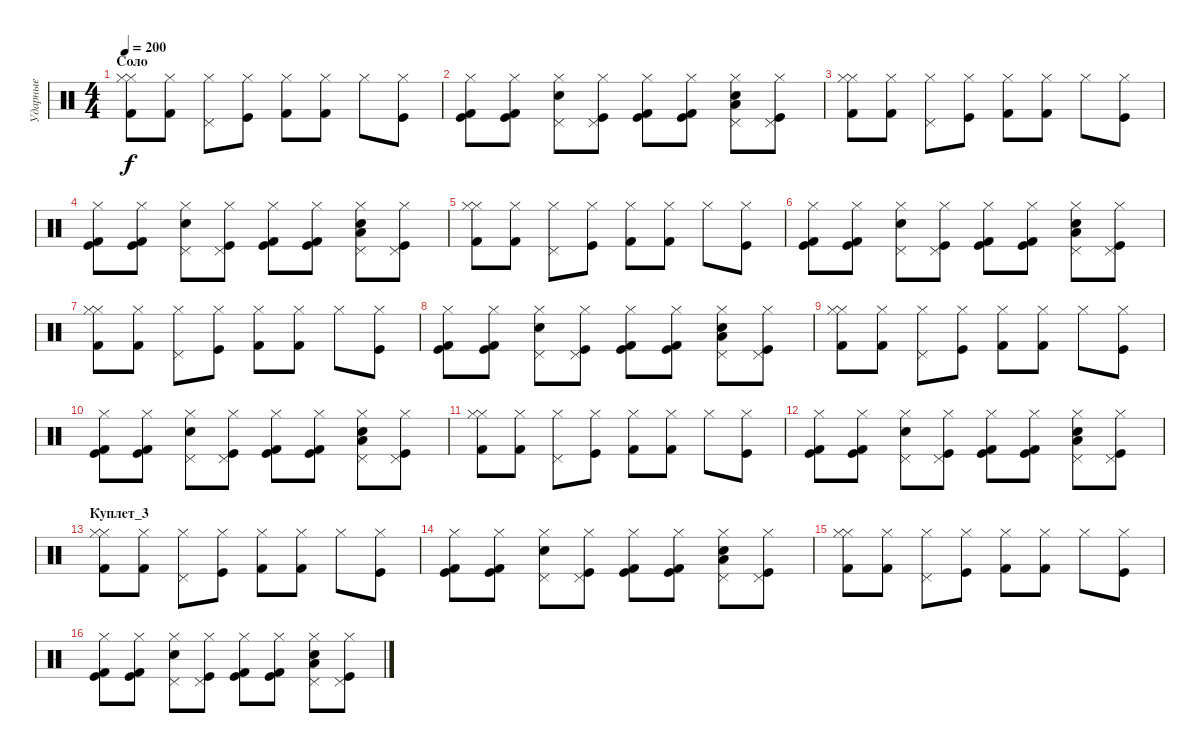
\track ("Ударные" "Ударные") {instrument percussion}
\staff {score}
\articulation defaults
\ts (4 4)
\section ("" "Соло")
\tempo 200
\clef neutral
\ks c
("Hi-Hat (closed)" "Kick (hit) 2" "Hi-Hat (closed)").8{dy f} ("Hi-Hat (closed)" "Kick (hit) 2").8 ("Hi-Hat (closed)" "Pedal Hi-Hat (hit)").8 ("Hi-Hat (closed)" "Kick (hit)").8 ("Hi-Hat (closed)" "Kick (hit) 2").8 ("Hi-Hat (closed)" "Kick (hit) 2").8 "Hi-Hat (closed)".8 ("Hi-Hat (closed)" "Kick (hit)").8 |
("Kick (hit)" "Kick (hit) 2" "Hi-Hat (closed)").8 ("Kick (hit)" "Kick (hit) 2" "Hi-Hat (closed)").8 ("Electric Snare (hit)" "Pedal Hi-Hat (hit)" "Hi-Hat (closed)").8 ("Pedal Hi-Hat (hit)" "Kick (hit)" "Hi-Hat (closed)").8 ("Kick (hit)" "Kick (hit) 2" "Hi-Hat (closed)").8 ("Kick (hit)" "Kick (hit) 2" "Hi-Hat (closed)").8 ("Low Tom (hit)" "Electric Snare (hit)" "Pedal Hi-Hat (hit)" "Hi-Hat (closed)").8 ("Pedal Hi-Hat (hit)" "Kick (hit)" "Hi-Hat (closed)").8 |
("Hi-Hat (closed)" "Kick (hit) 2" "Hi-Hat (closed)").8 ("Hi-Hat (closed)" "Kick (hit) 2").8 ("Hi-Hat (closed)" "Pedal Hi-Hat (hit)").8 ("Hi-Hat (closed)" "Kick (hit)").8 ("Hi-Hat (closed)" "Kick (hit) 2").8 ("Hi-Hat (closed)" "Kick (hit) 2").8 "Hi-Hat (closed)".8 ("Hi-Hat (closed)" "Kick (hit)").8 |
("Kick (hit)" "Kick (hit) 2" "Hi-Hat (closed)").8 ("Kick (hit)" "Kick (hit) 2" "Hi-Hat (closed)").8 ("Electric Snare (hit)" "Pedal Hi-Hat (hit)" "Hi-Hat (closed)").8 ("Pedal Hi-Hat (hit)" "Kick (hit)" "Hi-Hat (closed)").8 ("Kick (hit)" "Kick (hit) 2" "Hi-Hat (closed)").8 ("Kick (hit)" "Kick (hit) 2" "Hi-Hat (closed)").8 ("Low Tom (hit)" "Electric Snare (hit)" "Pedal Hi-Hat (hit)" "Hi-Hat (closed)").8 ("Pedal Hi-Hat (hit)" "Kick (hit)" "Hi-Hat (closed)").8 |
("Hi-Hat (closed)" "Kick (hit) 2" "Hi-Hat (closed)").8 ("Hi-Hat (closed)" "Kick (hit) 2").8 ("Hi-Hat (closed)" "Pedal Hi-Hat (hit)").8 ("Hi-Hat (closed)" "Kick (hit)").8 ("Hi-Hat (closed)" "Kick (hit) 2").8 ("Hi-Hat (closed)" "Kick (hit) 2").8 "Hi-Hat (closed)".8 ("Hi-Hat (closed)" "Kick (hit)").8 |
("Kick (hit)" "Kick (hit) 2" "Hi-Hat (closed)").8 ("Kick (hit)" "Kick (hit) 2" "Hi-Hat (closed)").8 ("Electric Snare (hit)" "Pedal Hi-Hat (hit)" "Hi-Hat (closed)").8 ("Pedal Hi-Hat (hit)" "Kick (hit)" "Hi-Hat (closed)").8 ("Kick (hit)" "Kick (hit) 2" "Hi-Hat (closed)").8 ("Kick (hit)" "Kick (hit) 2" "Hi-Hat (closed)").8 ("Low Tom (hit)" "Electric Snare (hit)" "Pedal Hi-Hat (hit)" "Hi-Hat (closed)").8 ("Pedal Hi-Hat (hit)" "Kick (hit)" "Hi-Hat (closed)").8 |
("Hi-Hat (closed)" "Kick (hit) 2" "Hi-Hat (closed)").8 ("Hi-Hat (closed)" "Kick (hit) 2").8 ("Hi-Hat (closed)" "Pedal Hi-Hat (hit)").8 ("Hi-Hat (closed)" "Kick (hit)").8 ("Hi-Hat (closed)" "Kick (hit) 2").8 ("Hi-Hat (closed)" "Kick (hit) 2").8 "Hi-Hat (closed)".8 ("Hi-Hat (closed)" "Kick (hit)").8 |
("Kick (hit)" "Kick (hit) 2" "Hi-Hat (closed)").8 ("Kick (hit)" "Kick (hit) 2" "Hi-Hat (closed)").8 ("Electric Snare (hit)" "Pedal Hi-Hat (hit)" "Hi-Hat (closed)").8 ("Pedal Hi-Hat (hit)" "Kick (hit)" "Hi-Hat (closed)").8 ("Kick (hit)" "Kick (hit) 2" "Hi-Hat (closed)").8 ("Kick (hit)" "Kick (hit) 2" "Hi-Hat (closed)").8 ("Low Tom (hit)" "Electric Snare (hit)" "Pedal Hi-Hat (hit)" "Hi-Hat (closed)").8 ("Pedal Hi-Hat (hit)" "Kick (hit)" "Hi-Hat (closed)").8 |
("Hi-Hat (closed)" "Kick (hit) 2" "Hi-Hat (closed)").8 ("Hi-Hat (closed)" "Kick (hit) 2").8 ("Hi-Hat (closed)" "Pedal Hi-Hat (hit)").8 ("Hi-Hat (closed)" "Kick (hit)").8 ("Hi-Hat (closed)" "Kick (hit) 2").8 ("Hi-Hat (closed)" "Kick (hit) 2").8 "Hi-Hat (closed)".8 ("Hi-Hat (closed)" "Kick (hit)").8 |
("Kick (hit)" "Kick (hit) 2" "Hi-Hat (closed)").8 ("Kick (hit)" "Kick (hit) 2" "Hi-Hat (closed)").8 ("Electric Snare (hit)" "Pedal Hi-Hat (hit)" "Hi-Hat (closed)").8 ("Pedal Hi-Hat (hit)" "Kick (hit)" "Hi-Hat (closed)").8 ("Kick (hit)" "Kick (hit) 2" "Hi-Hat (closed)").8 ("Kick (hit)" "Kick (hit) 2" "Hi-Hat (closed)").8 ("Low Tom (hit)" "Electric Snare (hit)" "Pedal Hi-Hat (hit)" "Hi-Hat (closed)").8 ("Pedal Hi-Hat (hit)" "Kick (hit)" "Hi-Hat (closed)").8 |
("Hi-Hat (closed)" "Kick (hit) 2" "Hi-Hat (closed)").8 ("Hi-Hat (closed)" "Kick (hit) 2").8 ("Hi-Hat (closed)" "Pedal Hi-Hat (hit)").8 ("Hi-Hat (closed)" "Kick (hit)").8 ("Hi-Hat (closed)" "Kick (hit) 2").8 ("Hi-Hat (closed)" "Kick (hit) 2").8 "Hi-Hat (closed)".8 ("Hi-Hat (closed)" "Kick (hit)").8 |
("Kick (hit)" "Kick (hit) 2" "Hi-Hat (closed)").8 ("Kick (hit)" "Kick (hit) 2" "Hi-Hat (closed)").8 ("Electric Snare (hit)" "Pedal Hi-Hat (hit)" "Hi-Hat (closed)").8 ("Pedal Hi-Hat (hit)" "Kick (hit)" "Hi-Hat (closed)").8 ("Kick (hit)" "Kick (hit) 2" "Hi-Hat (closed)").8 ("Kick (hit)" "Kick (hit) 2" "Hi-Hat (closed)").8 ("Low Tom (hit)" "Electric Snare (hit)" "Pedal Hi-Hat (hit)" "Hi-Hat (closed)").8 ("Pedal Hi-Hat (hit)" "Kick (hit)" "Hi-Hat (closed)").8 |
\section ("" "Куплет_3")
("Hi-Hat (closed)" "Kick (hit) 2" "Hi-Hat (closed)").8 ("Hi-Hat (closed)" "Kick (hit) 2").8 ("Hi-Hat (closed)" "Pedal Hi-Hat (hit)").8 ("Hi-Hat (closed)" "Kick (hit)").8 ("Hi-Hat (closed)" "Kick (hit) 2").8 ("Hi-Hat (closed)" "Kick (hit) 2").8 "Hi-Hat (closed)".8 ("Hi-Hat (closed)" "Kick (hit)").8 |
("Kick (hit)" "Kick (hit) 2" "Hi-Hat (closed)").8 ("Kick (hit)" "Kick (hit) 2" "Hi-Hat (closed)").8 ("Electric Snare (hit)" "Pedal Hi-Hat (hit)" "Hi-Hat (closed)").8 ("Pedal Hi-Hat (hit)" "Kick (hit)" "Hi-Hat (closed)").8 ("Kick (hit)" "Kick (hit) 2" "Hi-Hat (closed)").8 ("Kick (hit)" "Kick (hit) 2" "Hi-Hat (closed)").8 ("Low Tom (hit)" "Electric Snare (hit)" "Pedal Hi-Hat (hit)" "Hi-Hat (closed)").8 ("Pedal Hi-Hat (hit)" "Kick (hit)" "Hi-Hat (closed)").8 |
("Hi-Hat (closed)" "Kick (hit) 2" "Hi-Hat (closed)").8 ("Hi-Hat (closed)" "Kick (hit) 2").8 ("Hi-Hat (closed)" "Pedal Hi-Hat (hit)").8 ("Hi-Hat (closed)" "Kick (hit)").8 ("Hi-Hat (closed)" "Kick (hit) 2").8 ("Hi-Hat (closed)" "Kick (hit) 2").8 "Hi-Hat (closed)".8 ("Hi-Hat (closed)" "Kick (hit)").8 |
("Kick (hit)" "Kick (hit) 2" "Hi-Hat (closed)").8 ("Kick (hit)" "Kick (hit) 2" "Hi-Hat (closed)").8 ("Electric Snare (hit)" "Pedal Hi-Hat (hit)" "Hi-Hat (closed)").8 ("Pedal Hi-Hat (hit)" "Kick (hit)" "Hi-Hat (closed)").8 ("Kick (hit)" "Kick (hit) 2" "Hi-Hat (closed)").8 ("Kick (hit)" "Kick (hit) 2" "Hi-Hat (closed)").8 ("Low Tom (hit)" "Electric Snare (hit)" "Pedal Hi-Hat (hit)" "Hi-Hat (closed)").8 ("Pedal Hi-Hat (hit)" "Kick (hit)" "Hi-Hat (closed)").8
